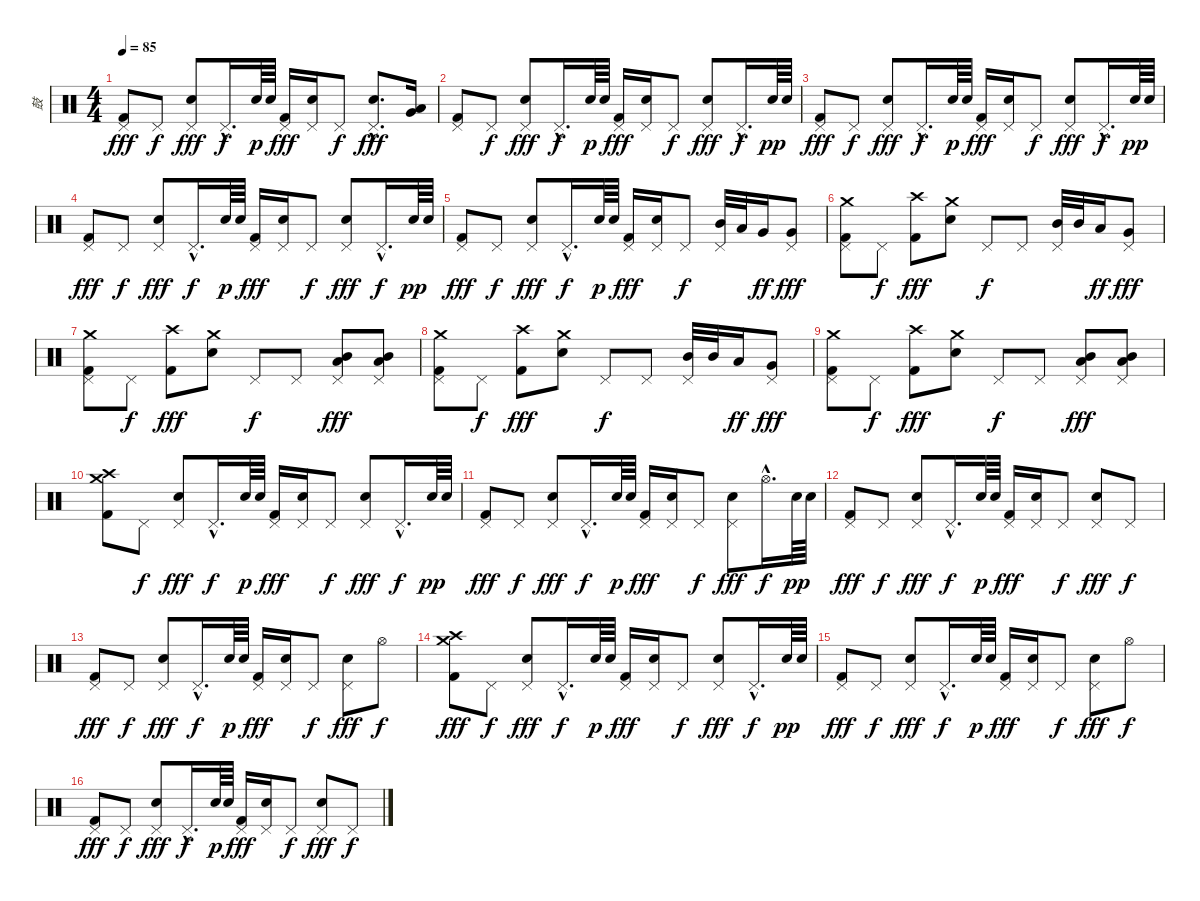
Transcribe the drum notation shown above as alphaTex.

\track ("鼓" "鼓") {instrument percussion}
\staff {score}
\articulation defaults
\ts (4 4)
\tempo 85
\clef neutral
\ks c
("Pedal Hi-Hat (hit)" "Kick (hit) 2").8{dy fff} "Pedal Hi-Hat (hit)".8{dy f} ("Pedal Hi-Hat (hit)" "Snare (hit) 2").8{dy fff} "Pedal Hi-Hat (hit)"{hac}.16{d dy f} "Snare (hit) 2".64{dy p} "Snare (hit) 2".64 ("Pedal Hi-Hat (hit)" "Kick (hit) 2").16{dy fff} ("Pedal Hi-Hat (hit)" "Snare (hit) 2").16 "Pedal Hi-Hat (hit)".8{dy f} ("Pedal Hi-Hat (hit)"{hac} "Snare (hit) 2"{hac}).8{d dy fff} ("Very Low Tom (hit)" "Low Tom (hit)").16 |
("Pedal Hi-Hat (hit)" "Kick (hit) 2").8 "Pedal Hi-Hat (hit)".8{dy f} ("Pedal Hi-Hat (hit)" "Snare (hit) 2").8{dy fff} "Pedal Hi-Hat (hit)"{hac}.16{d dy f} "Snare (hit) 2".64{dy p} "Snare (hit) 2".64 ("Pedal Hi-Hat (hit)" "Kick (hit) 2").16{dy fff} ("Pedal Hi-Hat (hit)" "Snare (hit) 2").16 "Pedal Hi-Hat (hit)".8{dy f} ("Pedal Hi-Hat (hit)" "Snare (hit) 2").8{dy fff} "Pedal Hi-Hat (hit)"{hac}.16{d dy f} "Snare (hit) 2".64{dy pp} "Snare (hit) 2".64 |
("Pedal Hi-Hat (hit)" "Kick (hit) 2").8{dy fff} "Pedal Hi-Hat (hit)".8{dy f} ("Pedal Hi-Hat (hit)" "Snare (hit) 2").8{dy fff} "Pedal Hi-Hat (hit)"{hac}.16{d dy f} "Snare (hit) 2".64{dy p} "Snare (hit) 2".64 ("Pedal Hi-Hat (hit)" "Kick (hit) 2").16{dy fff} ("Pedal Hi-Hat (hit)" "Snare (hit) 2").16 "Pedal Hi-Hat (hit)".8{dy f} ("Pedal Hi-Hat (hit)" "Snare (hit) 2").8{dy fff} "Pedal Hi-Hat (hit)"{hac}.16{d dy f} "Snare (hit) 2".64{dy pp} "Snare (hit) 2".64 |
("Pedal Hi-Hat (hit)" "Kick (hit) 2").8{dy fff} "Pedal Hi-Hat (hit)".8{dy f} ("Pedal Hi-Hat (hit)" "Snare (hit) 2").8{dy fff} "Pedal Hi-Hat (hit)"{hac}.16{d dy f} "Snare (hit) 2".64{dy p} "Snare (hit) 2".64 ("Pedal Hi-Hat (hit)" "Kick (hit) 2").16{dy fff} ("Pedal Hi-Hat (hit)" "Snare (hit) 2").16 "Pedal Hi-Hat (hit)".8{dy f} ("Pedal Hi-Hat (hit)" "Snare (hit) 2").8{dy fff} "Pedal Hi-Hat (hit)"{hac}.16{d dy f} "Snare (hit) 2".64{dy pp} "Snare (hit) 2".64 |
("Pedal Hi-Hat (hit)" "Kick (hit) 2").8{dy fff} "Pedal Hi-Hat (hit)".8{dy f} ("Pedal Hi-Hat (hit)" "Snare (hit) 2").8{dy fff} "Pedal Hi-Hat (hit)"{hac}.16{d dy f} "Snare (hit) 2".64{dy p} "Snare (hit) 2".64 ("Pedal Hi-Hat (hit)" "Kick (hit) 2").16{dy fff} ("Pedal Hi-Hat (hit)" "Snare (hit) 2").16 "Pedal Hi-Hat (hit)".8{dy f} ("Pedal Hi-Hat (hit)" "Mid Tom (hit)").32 "Low Tom (hit)".32 "Very Low Tom (hit)".16{dy ff} ("Pedal Hi-Hat (hit)" "Very Low Tom (hit)").8{dy fff} |
("Pedal Hi-Hat (hit)" "Crash medium (hit)" "Kick (hit) 2").8 "Pedal Hi-Hat (hit)".8{dy f} ("Crash high (hit)" "Kick (hit) 2").8{dy fff} ("Crash medium (hit)" "Snare (hit) 2").8 "Pedal Hi-Hat (hit)".8{dy f} "Pedal Hi-Hat (hit)".8 ("Pedal Hi-Hat (hit)" "Mid Tom (hit)").32 "Mid Tom (hit)".32 "Low Tom (hit)".16{dy ff} ("Pedal Hi-Hat (hit)" "Very Low Tom (hit)").8{dy fff} |
("Pedal Hi-Hat (hit)" "Crash medium (hit)" "Kick (hit) 2").8 "Pedal Hi-Hat (hit)".8{dy f} ("Crash high (hit)" "Kick (hit) 2").8{dy fff} ("Crash medium (hit)" "Snare (hit) 2").8 "Pedal Hi-Hat (hit)".8{dy f} "Pedal Hi-Hat (hit)".8 ("Pedal Hi-Hat (hit)" "Mid Tom (hit)" "Low Tom (hit)").8{dy fff} ("Pedal Hi-Hat (hit)" "Mid Tom (hit)" "Low Tom (hit)").8 |
("Pedal Hi-Hat (hit)" "Crash medium (hit)" "Kick (hit) 2").8 "Pedal Hi-Hat (hit)".8{dy f} ("Crash high (hit)" "Kick (hit) 2").8{dy fff} ("Crash medium (hit)" "Snare (hit) 2").8 "Pedal Hi-Hat (hit)".8{dy f} "Pedal Hi-Hat (hit)".8 ("Pedal Hi-Hat (hit)" "Mid Tom (hit)").32 "Mid Tom (hit)".32 "Low Tom (hit)".16{dy ff} ("Pedal Hi-Hat (hit)" "Very Low Tom (hit)").8{dy fff} |
("Pedal Hi-Hat (hit)" "Crash medium (hit)" "Kick (hit) 2").8 "Pedal Hi-Hat (hit)".8{dy f} ("Crash high (hit)" "Kick (hit) 2").8{dy fff} ("Crash medium (hit)" "Snare (hit) 2").8 "Pedal Hi-Hat (hit)".8{dy f} "Pedal Hi-Hat (hit)".8 ("Pedal Hi-Hat (hit)" "Mid Tom (hit)" "Low Tom (hit)").8{dy fff} ("Pedal Hi-Hat (hit)" "Mid Tom (hit)" "Low Tom (hit)").8 |
("Crash high (hit)" "Crash medium (hit)" "Kick (hit) 2").8 "Pedal Hi-Hat (hit)".8{dy f} ("Pedal Hi-Hat (hit)" "Snare (hit) 2").8{dy fff} "Pedal Hi-Hat (hit)"{hac}.16{d dy f} "Snare (hit) 2".64{dy p} "Snare (hit) 2".64 ("Pedal Hi-Hat (hit)" "Kick (hit) 2").16{dy fff} ("Pedal Hi-Hat (hit)" "Snare (hit) 2").16 "Pedal Hi-Hat (hit)".8{dy f} ("Pedal Hi-Hat (hit)" "Snare (hit) 2").8{dy fff} "Pedal Hi-Hat (hit)"{hac}.16{d dy f} "Snare (hit) 2".64{dy pp} "Snare (hit) 2".64 |
("Pedal Hi-Hat (hit)" "Kick (hit) 2").8{dy fff} "Pedal Hi-Hat (hit)".8{dy f} ("Pedal Hi-Hat (hit)" "Snare (hit) 2").8{dy fff} "Pedal Hi-Hat (hit)"{hac}.16{d dy f} "Snare (hit) 2".64{dy p} "Snare (hit) 2".64 ("Pedal Hi-Hat (hit)" "Kick (hit) 2").16{dy fff} ("Pedal Hi-Hat (hit)" "Snare (hit) 2").16 "Pedal Hi-Hat (hit)".8{dy f} ("Pedal Hi-Hat (hit)" "Snare (hit) 2").8{dy fff} "Hi-Hat (open)"{hac}.16{d dy f} "Snare (hit) 2".64{dy pp} "Snare (hit) 2".64 |
("Pedal Hi-Hat (hit)" "Kick (hit) 2").8{dy fff} "Pedal Hi-Hat (hit)".8{dy f} ("Pedal Hi-Hat (hit)" "Snare (hit) 2").8{dy fff} "Pedal Hi-Hat (hit)"{hac}.16{d dy f} "Snare (hit) 2".64{dy p} "Snare (hit) 2".64 ("Pedal Hi-Hat (hit)" "Kick (hit) 2").16{dy fff} ("Pedal Hi-Hat (hit)" "Snare (hit) 2").16 "Pedal Hi-Hat (hit)".8{dy f} ("Pedal Hi-Hat (hit)" "Snare (hit) 2").8{dy fff} "Pedal Hi-Hat (hit)".8{dy f} |
("Pedal Hi-Hat (hit)" "Kick (hit) 2").8{dy fff} "Pedal Hi-Hat (hit)".8{dy f} ("Pedal Hi-Hat (hit)" "Snare (hit) 2").8{dy fff} "Pedal Hi-Hat (hit)"{hac}.16{d dy f} "Snare (hit) 2".64{dy p} "Snare (hit) 2".64 ("Pedal Hi-Hat (hit)" "Kick (hit) 2").16{dy fff} ("Pedal Hi-Hat (hit)" "Snare (hit) 2").16 "Pedal Hi-Hat (hit)".8{dy f} ("Pedal Hi-Hat (hit)" "Snare (hit) 2").8{dy fff} "Hi-Hat (open)".8{dy f} |
("Crash high (hit)" "Crash medium (hit)" "Kick (hit) 2").8{dy fff} "Pedal Hi-Hat (hit)".8{dy f} ("Pedal Hi-Hat (hit)" "Snare (hit) 2").8{dy fff} "Pedal Hi-Hat (hit)"{hac}.16{d dy f} "Snare (hit) 2".64{dy p} "Snare (hit) 2".64 ("Pedal Hi-Hat (hit)" "Kick (hit) 2").16{dy fff} ("Pedal Hi-Hat (hit)" "Snare (hit) 2").16 "Pedal Hi-Hat (hit)".8{dy f} ("Pedal Hi-Hat (hit)" "Snare (hit) 2").8{dy fff} "Pedal Hi-Hat (hit)"{hac}.16{d dy f} "Snare (hit) 2".64{dy pp} "Snare (hit) 2".64 |
("Pedal Hi-Hat (hit)" "Kick (hit) 2").8{dy fff} "Pedal Hi-Hat (hit)".8{dy f} ("Pedal Hi-Hat (hit)" "Snare (hit) 2").8{dy fff} "Pedal Hi-Hat (hit)"{hac}.16{d dy f} "Snare (hit) 2".64{dy p} "Snare (hit) 2".64 ("Pedal Hi-Hat (hit)" "Kick (hit) 2").16{dy fff} ("Pedal Hi-Hat (hit)" "Snare (hit) 2").16 "Pedal Hi-Hat (hit)".8{dy f} ("Pedal Hi-Hat (hit)" "Snare (hit) 2").8{dy fff} "Hi-Hat (open)".8{dy f} |
("Pedal Hi-Hat (hit)" "Kick (hit) 2").8{dy fff} "Pedal Hi-Hat (hit)".8{dy f} ("Pedal Hi-Hat (hit)" "Snare (hit) 2").8{dy fff} "Pedal Hi-Hat (hit)"{hac}.16{d dy f} "Snare (hit) 2".64{dy p} "Snare (hit) 2".64 ("Pedal Hi-Hat (hit)" "Kick (hit) 2").16{dy fff} ("Pedal Hi-Hat (hit)" "Snare (hit) 2").16 "Pedal Hi-Hat (hit)".8{dy f} ("Pedal Hi-Hat (hit)" "Snare (hit) 2").8{dy fff} "Pedal Hi-Hat (hit)".8{dy f}
